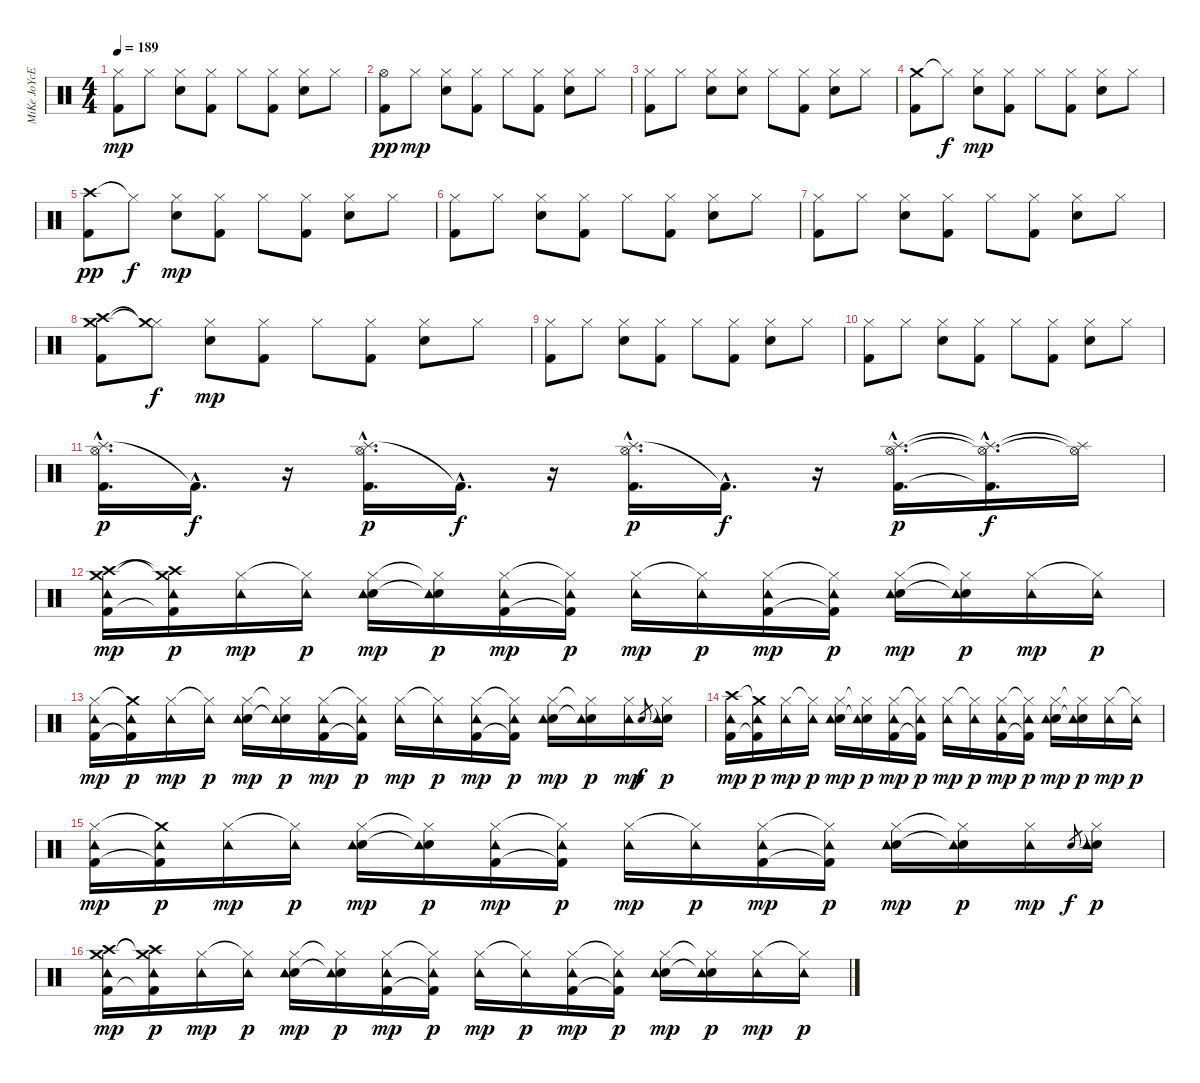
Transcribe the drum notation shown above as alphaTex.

\track ("MiKe JoYcE" "MiKe JoYcE") {instrument percussion}
\staff {score}
\articulation defaults
\ts (4 4)
\tempo 189
\clef neutral
\ks c
("Hi-Hat (closed)" "Kick (hit) 2").8{dy mp} "Hi-Hat (closed)".8 ("Hi-Hat (closed)" "Electric Snare (hit)").8 ("Hi-Hat (closed)" "Kick (hit) 2").8 "Hi-Hat (closed)".8 ("Hi-Hat (closed)" "Kick (hit) 2").8 ("Hi-Hat (closed)" "Electric Snare (hit)").8 "Hi-Hat (closed)".8 |
("Hi-Hat (open)" "Kick (hit) 2").8{dy pp} "Hi-Hat (closed)".8{dy mp} ("Hi-Hat (closed)" "Electric Snare (hit)").8 ("Hi-Hat (closed)" "Kick (hit) 2").8 "Hi-Hat (closed)".8 ("Hi-Hat (closed)" "Kick (hit) 2").8 ("Hi-Hat (closed)" "Electric Snare (hit)").8 "Hi-Hat (closed)".8 |
("Hi-Hat (closed)" "Kick (hit) 2").8 "Hi-Hat (closed)".8 ("Hi-Hat (closed)" "Electric Snare (hit)").8 ("Hi-Hat (closed)" "Electric Snare (hit)").8 "Hi-Hat (closed)".8 ("Hi-Hat (closed)" "Kick (hit) 2").8 ("Hi-Hat (closed)" "Electric Snare (hit)").8 "Hi-Hat (closed)".8 |
("Crash medium (hit)" "Kick (hit) 2").8 "Hi-Hat (closed)"{t}.8{dy f} ("Hi-Hat (closed)" "Electric Snare (hit)").8{dy mp} ("Hi-Hat (closed)" "Kick (hit) 2").8 "Hi-Hat (closed)".8 ("Hi-Hat (closed)" "Kick (hit) 2").8 ("Hi-Hat (closed)" "Electric Snare (hit)").8 "Hi-Hat (closed)".8 |
("Crash high (hit)" "Kick (hit) 2").8{dy pp} "Hi-Hat (closed)"{t}.8{dy f} ("Hi-Hat (closed)" "Electric Snare (hit)").8{dy mp} ("Hi-Hat (closed)" "Kick (hit) 2").8 "Hi-Hat (closed)".8 ("Hi-Hat (closed)" "Kick (hit) 2").8 ("Hi-Hat (closed)" "Electric Snare (hit)").8 "Hi-Hat (closed)".8 |
("Hi-Hat (closed)" "Kick (hit) 2").8 "Hi-Hat (closed)".8 ("Hi-Hat (closed)" "Electric Snare (hit)").8 ("Hi-Hat (closed)" "Kick (hit) 2").8 "Hi-Hat (closed)".8 ("Hi-Hat (closed)" "Kick (hit) 2").8 ("Hi-Hat (closed)" "Electric Snare (hit)").8 "Hi-Hat (closed)".8 |
("Hi-Hat (closed)" "Kick (hit) 2").8 "Hi-Hat (closed)".8 ("Hi-Hat (closed)" "Electric Snare (hit)").8 ("Hi-Hat (closed)" "Kick (hit) 2").8 "Hi-Hat (closed)".8 ("Hi-Hat (closed)" "Kick (hit) 2").8 ("Hi-Hat (closed)" "Electric Snare (hit)").8 "Hi-Hat (closed)".8 |
("Crash high (hit)" "Crash medium (hit)" "Kick (hit) 2").8 ("Hi-Hat (closed)"{t} "Crash medium (hit)"{t}).8{dy f} ("Hi-Hat (closed)" "Electric Snare (hit)").8{dy mp} ("Hi-Hat (closed)" "Kick (hit) 2").8 "Hi-Hat (closed)".8 ("Hi-Hat (closed)" "Kick (hit) 2").8 ("Hi-Hat (closed)" "Electric Snare (hit)").8 "Hi-Hat (closed)".8 |
("Hi-Hat (closed)" "Kick (hit) 2").8 "Hi-Hat (closed)".8 ("Hi-Hat (closed)" "Electric Snare (hit)").8 ("Hi-Hat (closed)" "Kick (hit) 2").8 "Hi-Hat (closed)".8 ("Hi-Hat (closed)" "Kick (hit) 2").8 ("Hi-Hat (closed)" "Electric Snare (hit)").8 "Hi-Hat (closed)".8 |
("Hi-Hat (closed)" "Kick (hit) 2").8 "Hi-Hat (closed)".8 ("Hi-Hat (closed)" "Electric Snare (hit)").8 ("Hi-Hat (closed)" "Kick (hit) 2").8 "Hi-Hat (closed)".8 ("Hi-Hat (closed)" "Kick (hit) 2").8 ("Hi-Hat (closed)" "Electric Snare (hit)").8 "Hi-Hat (closed)".8 |
("Splash (hit)"{hac} "Hi-Hat (open)"{hac} "Kick (hit) 2"{hac}).16{d dy p} "Kick (hit) 2"{hac t}.16{d dy f} r.16 ("Splash (hit)"{hac} "Hi-Hat (open)"{hac} "Kick (hit) 2"{hac}).16{d dy p} "Kick (hit) 2"{hac t}.16{d dy f} r.16 ("Splash (hit)"{hac} "Hi-Hat (open)"{hac} "Kick (hit) 2"{hac}).16{d dy p} "Kick (hit) 2"{hac t}.16{d dy f} r.16 ("Splash (hit)"{hac} "Hi-Hat (open)"{hac} "Kick (hit) 2"{hac}).16{d dy p} ("Splash (hit)"{hac t} "Hi-Hat (open)"{hac t} "Kick (hit) 2"{hac t}).16{d dy f} ("Splash (hit)"{t} "Hi-Hat (open)"{t}).16 |
("Crash high (hit)" "Crash medium (hit)" "Tambourine (hit)" "Kick (hit) 2").16{dy mp} ("Crash medium (hit)"{t} "Crash high (hit)"{t} "Tambourine (hit)" "Kick (hit) 2"{t}).16{dy p} ("Hi-Hat (closed)" "Tambourine (hit)").16{dy mp} ("Hi-Hat (closed)"{t} "Tambourine (hit)").16{dy p} ("Hi-Hat (closed)" "Electric Snare (hit)" "Tambourine (hit)").16{dy mp} ("Hi-Hat (closed)"{t} "Electric Snare (hit)"{t} "Tambourine (hit)").16{dy p} ("Hi-Hat (closed)" "Tambourine (hit)" "Kick (hit) 2").16{dy mp} ("Hi-Hat (closed)"{t} "Tambourine (hit)" "Kick (hit) 2"{t}).16{dy p} ("Hi-Hat (closed)" "Tambourine (hit)").16{dy mp} ("Hi-Hat (closed)"{t} "Tambourine (hit)").16{dy p} ("Hi-Hat (closed)" "Tambourine (hit)" "Kick (hit) 2").16{dy mp} ("Hi-Hat (closed)"{t} "Tambourine (hit)" "Kick (hit) 2"{t}).16{dy p} ("Hi-Hat (closed)" "Electric Snare (hit)" "Tambourine (hit)").16{dy mp} ("Hi-Hat (closed)"{t} "Electric Snare (hit)"{t} "Tambourine (hit)").16{dy p} ("Hi-Hat (closed)" "Tambourine (hit)").16{dy mp} ("Hi-Hat (closed)"{t} "Tambourine (hit)").16{dy p} |
("Hi-Hat (closed)" "Tambourine (hit)" "Kick (hit) 2").16{dy mp} ("Crash medium (hit)"{t} "Tambourine (hit)" "Kick (hit) 2"{t}).16{dy p} ("Hi-Hat (closed)" "Tambourine (hit)").16{dy mp} ("Hi-Hat (closed)"{t} "Tambourine (hit)").16{dy p} ("Hi-Hat (closed)" "Electric Snare (hit)" "Tambourine (hit)").16{dy mp} ("Hi-Hat (closed)"{t} "Electric Snare (hit)"{t} "Tambourine (hit)").16{dy p} ("Hi-Hat (closed)" "Tambourine (hit)" "Kick (hit) 2").16{dy mp} ("Hi-Hat (closed)"{t} "Tambourine (hit)" "Kick (hit) 2"{t}).16{dy p} ("Hi-Hat (closed)" "Tambourine (hit)").16{dy mp} ("Hi-Hat (closed)"{t} "Tambourine (hit)").16{dy p} ("Hi-Hat (closed)" "Tambourine (hit)" "Kick (hit) 2").16{dy mp} ("Hi-Hat (closed)"{t} "Tambourine (hit)" "Kick (hit) 2"{t}).16{dy p} ("Hi-Hat (closed)" "Electric Snare (hit)" "Tambourine (hit)").16{dy mp} ("Hi-Hat (closed)"{t} "Electric Snare (hit)"{t} "Tambourine (hit)").16{dy p} ("Hi-Hat (closed)" "Tambourine (hit)").16{dy mp} "Electric Snare (hit)".8{gr dy f} ("Hi-Hat (closed)"{t} "Electric Snare (hit)" "Tambourine (hit)").16{dy p} |
("Crash high (hit)" "Tambourine (hit)" "Kick (hit) 2").16{dy mp} ("Crash medium (hit)"{t} "Tambourine (hit)" "Kick (hit) 2"{t}).16{dy p} ("Hi-Hat (closed)" "Tambourine (hit)").16{dy mp} ("Hi-Hat (closed)"{t} "Tambourine (hit)").16{dy p} ("Hi-Hat (closed)" "Electric Snare (hit)" "Tambourine (hit)").16{dy mp} ("Hi-Hat (closed)"{t} "Electric Snare (hit)"{t} "Tambourine (hit)").16{dy p} ("Hi-Hat (closed)" "Tambourine (hit)" "Kick (hit) 2").16{dy mp} ("Hi-Hat (closed)"{t} "Tambourine (hit)" "Kick (hit) 2"{t}).16{dy p} ("Hi-Hat (closed)" "Tambourine (hit)").16{dy mp} ("Hi-Hat (closed)"{t} "Tambourine (hit)").16{dy p} ("Hi-Hat (closed)" "Tambourine (hit)" "Kick (hit) 2").16{dy mp} ("Hi-Hat (closed)"{t} "Tambourine (hit)" "Kick (hit) 2"{t}).16{dy p} ("Hi-Hat (closed)" "Electric Snare (hit)" "Tambourine (hit)").16{dy mp} ("Hi-Hat (closed)"{t} "Electric Snare (hit)"{t} "Tambourine (hit)").16{dy p} ("Hi-Hat (closed)" "Tambourine (hit)").16{dy mp} ("Hi-Hat (closed)"{t} "Tambourine (hit)").16{dy p} |
("Hi-Hat (closed)" "Tambourine (hit)" "Kick (hit) 2").16{dy mp} ("Crash medium (hit)"{t} "Tambourine (hit)" "Kick (hit) 2"{t}).16{dy p} ("Hi-Hat (closed)" "Tambourine (hit)").16{dy mp} ("Hi-Hat (closed)"{t} "Tambourine (hit)").16{dy p} ("Hi-Hat (closed)" "Electric Snare (hit)" "Tambourine (hit)").16{dy mp} ("Hi-Hat (closed)"{t} "Electric Snare (hit)"{t} "Tambourine (hit)").16{dy p} ("Hi-Hat (closed)" "Tambourine (hit)" "Kick (hit) 2").16{dy mp} ("Hi-Hat (closed)"{t} "Tambourine (hit)" "Kick (hit) 2"{t}).16{dy p} ("Hi-Hat (closed)" "Tambourine (hit)").16{dy mp} ("Hi-Hat (closed)"{t} "Tambourine (hit)").16{dy p} ("Hi-Hat (closed)" "Tambourine (hit)" "Kick (hit) 2").16{dy mp} ("Hi-Hat (closed)"{t} "Tambourine (hit)" "Kick (hit) 2"{t}).16{dy p} ("Hi-Hat (closed)" "Electric Snare (hit)" "Tambourine (hit)").16{dy mp} ("Hi-Hat (closed)"{t} "Electric Snare (hit)"{t} "Tambourine (hit)").16{dy p} ("Hi-Hat (closed)" "Tambourine (hit)").16{dy mp} "Electric Snare (hit)".8{gr dy f} ("Hi-Hat (closed)"{t} "Electric Snare (hit)" "Tambourine (hit)").16{dy p} |
("Crash high (hit)" "Crash medium (hit)" "Tambourine (hit)" "Kick (hit) 2").16{dy mp} ("Crash medium (hit)"{t} "Crash high (hit)"{t} "Tambourine (hit)" "Kick (hit) 2"{t}).16{dy p} ("Hi-Hat (closed)" "Tambourine (hit)").16{dy mp} ("Hi-Hat (closed)"{t} "Tambourine (hit)").16{dy p} ("Hi-Hat (closed)" "Electric Snare (hit)" "Tambourine (hit)").16{dy mp} ("Hi-Hat (closed)"{t} "Electric Snare (hit)"{t} "Tambourine (hit)").16{dy p} ("Hi-Hat (closed)" "Tambourine (hit)" "Kick (hit) 2").16{dy mp} ("Hi-Hat (closed)"{t} "Tambourine (hit)" "Kick (hit) 2"{t}).16{dy p} ("Hi-Hat (closed)" "Tambourine (hit)").16{dy mp} ("Hi-Hat (closed)"{t} "Tambourine (hit)").16{dy p} ("Hi-Hat (closed)" "Tambourine (hit)" "Kick (hit) 2").16{dy mp} ("Hi-Hat (closed)"{t} "Tambourine (hit)" "Kick (hit) 2"{t}).16{dy p} ("Hi-Hat (closed)" "Electric Snare (hit)" "Tambourine (hit)").16{dy mp} ("Hi-Hat (closed)"{t} "Electric Snare (hit)"{t} "Tambourine (hit)").16{dy p} ("Hi-Hat (closed)" "Tambourine (hit)").16{dy mp} ("Hi-Hat (closed)"{t} "Tambourine (hit)").16{dy p}
